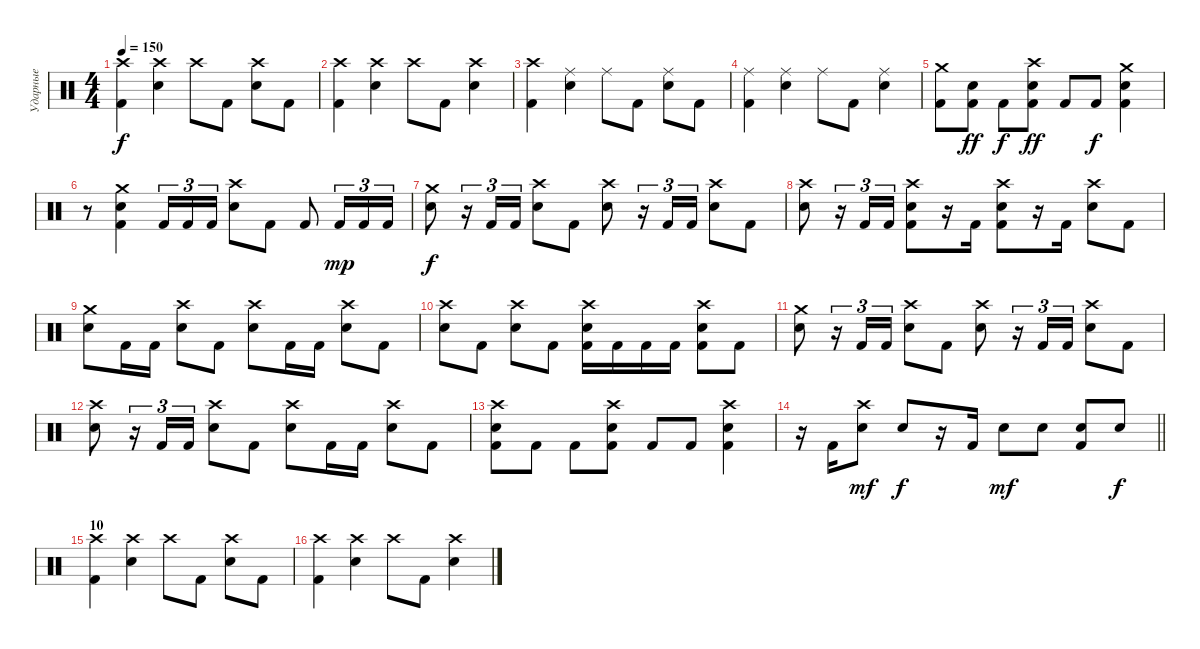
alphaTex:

\track ("Ударные" "Ударные") {instrument percussion}
\staff {score}
\articulation defaults
\ts (4 4)
\tempo 150
\clef neutral
\ks c
("Crash high (hit)" "Kick (hit) 2").4{dy f} ("Crash high (hit)" "Electric Snare (hit)").4 "Crash high (hit)".8 "Kick (hit) 2".8 ("Crash high (hit)" "Electric Snare (hit)").8 "Kick (hit) 2".8 |
("Crash high (hit)" "Kick (hit) 2").4 ("Crash high (hit)" "Electric Snare (hit)").4 "Crash high (hit)".8 "Kick (hit) 2".8 ("Crash high (hit)" "Electric Snare (hit)").4 |
("Crash high (hit)" "Kick (hit) 2").4 ("Ride (middle)" "Electric Snare (hit)").4 "Ride (middle)".8 "Kick (hit) 2".8 ("Ride (middle)" "Electric Snare (hit)").8 "Kick (hit) 2".8 |
("Ride (middle)" "Kick (hit) 2").4 ("Ride (middle)" "Electric Snare (hit)").4 "Ride (middle)".8 "Kick (hit) 2".8 ("Ride (middle)" "Electric Snare (hit)").4 |
("Crash medium (hit)" "Kick (hit) 2").8 ("Electric Snare (hit)" "Kick (hit) 2").8{dy ff} "Kick (hit) 2".8{dy f} ("Crash high (hit)" "Snare (hit) 2" "Kick (hit) 2").8{dy ff} "Kick (hit) 2".8 "Kick (hit) 2".8{dy f} ("Crash medium (hit)" "Electric Snare (hit)" "Kick (hit) 2").4 |
r.8 ("Crash medium (hit)" "Electric Snare (hit)" "Kick (hit) 2").4 "Kick (hit) 2".16{tu (3 2)} "Kick (hit) 2".16{tu (3 2)} "Kick (hit) 2".16{tu (3 2)} ("Crash high (hit)" "Electric Snare (hit)").8 "Kick (hit) 2".8 "Kick (hit) 2".8 "Kick (hit) 2".16{tu (3 2) dy mp} "Kick (hit) 2".16{tu (3 2)} "Kick (hit) 2".16{tu (3 2)} |
("Crash medium (hit)" "Electric Snare (hit)").8{dy f} r.16{tu (3 2)} "Kick (hit) 2".16{tu (3 2)} "Kick (hit) 2".16{tu (3 2)} ("Crash high (hit)" "Snare (hit) 2").8 "Kick (hit) 2".8 ("Crash high (hit)" "Snare (hit) 2").8 r.16{tu (3 2)} "Kick (hit) 2".16{tu (3 2)} "Kick (hit) 2".16{tu (3 2)} ("Crash high (hit)" "Snare (hit) 2").8 "Kick (hit) 2".8 |
("Crash high (hit)" "Snare (hit) 2").8 r.16{tu (3 2)} "Kick (hit) 2".16{tu (3 2)} "Kick (hit) 2".16{tu (3 2)} ("Crash high (hit)" "Snare (hit) 2" "Kick (hit) 2").8 r.16 "Kick (hit) 2".16 ("Crash high (hit)" "Snare (hit) 2" "Kick (hit) 2").8 r.16 "Kick (hit) 2".16 ("Crash high (hit)" "Snare (hit) 2").8 "Kick (hit) 2".8 |
("Crash medium (hit)" "Electric Snare (hit)").8 "Kick (hit) 2".16 "Kick (hit) 2".16 ("Crash high (hit)" "Snare (hit) 2").8 "Kick (hit) 2".8 ("Crash high (hit)" "Snare (hit) 2").8 "Kick (hit) 2".16 "Kick (hit) 2".16 ("Crash high (hit)" "Snare (hit) 2").8 "Kick (hit) 2".8 |
("Crash high (hit)" "Snare (hit) 2").8 "Kick (hit) 2".8 ("Crash high (hit)" "Snare (hit) 2").8 "Kick (hit) 2".8 ("Crash high (hit)" "Snare (hit) 2" "Kick (hit) 2").16 "Kick (hit) 2".16 "Kick (hit) 2".16 "Kick (hit) 2".16 ("Crash high (hit)" "Snare (hit) 2" "Kick (hit) 2").8 "Kick (hit) 2".8 |
("Crash medium (hit)" "Electric Snare (hit)").8 r.16{tu (3 2)} "Kick (hit) 2".16{tu (3 2)} "Kick (hit) 2".16{tu (3 2)} ("Crash high (hit)" "Snare (hit) 2").8 "Kick (hit) 2".8 ("Crash high (hit)" "Snare (hit) 2").8 r.16{tu (3 2)} "Kick (hit) 2".16{tu (3 2)} "Kick (hit) 2".16{tu (3 2)} ("Crash high (hit)" "Snare (hit) 2").8 "Kick (hit) 2".8 |
("Crash high (hit)" "Snare (hit) 2").8 r.16{tu (3 2)} "Kick (hit) 2".16{tu (3 2)} "Kick (hit) 2".16{tu (3 2)} ("Crash high (hit)" "Snare (hit) 2").8 "Kick (hit) 2".8 ("Crash high (hit)" "Snare (hit) 2").8 "Kick (hit) 2".16 "Kick (hit) 2".16 ("Crash high (hit)" "Snare (hit) 2").8 "Kick (hit) 2".8 |
("Crash high (hit)" "Electric Snare (hit)" "Kick (hit) 2").8 "Kick (hit) 2".8 "Kick (hit) 2".8 ("Crash high (hit)" "Electric Snare (hit)" "Kick (hit) 2").8 "Kick (hit) 2".8 "Kick (hit) 2".8 ("Crash high (hit)" "Electric Snare (hit)" "Kick (hit) 2").4 |
\barLineRight lightlight
r.16 "Kick (hit) 2".16 ("Crash high (hit)" "Electric Snare (hit)").8{dy mf} "Electric Snare (hit)".8{dy f} r.16 "Kick (hit) 2".16 "Electric Snare (hit)".8{dy mf} "Electric Snare (hit)".8 ("Electric Snare (hit)" "Kick (hit) 2").8 "Electric Snare (hit)".8{dy f} |
\section ("" "10")
("Crash high (hit)" "Kick (hit) 2").4 ("Crash high (hit)" "Electric Snare (hit)").4 "Crash high (hit)".8 "Kick (hit) 2".8 ("Crash high (hit)" "Electric Snare (hit)").8 "Kick (hit) 2".8 |
("Crash high (hit)" "Kick (hit) 2").4 ("Crash high (hit)" "Electric Snare (hit)").4 "Crash high (hit)".8 "Kick (hit) 2".8 ("Crash high (hit)" "Electric Snare (hit)").4
